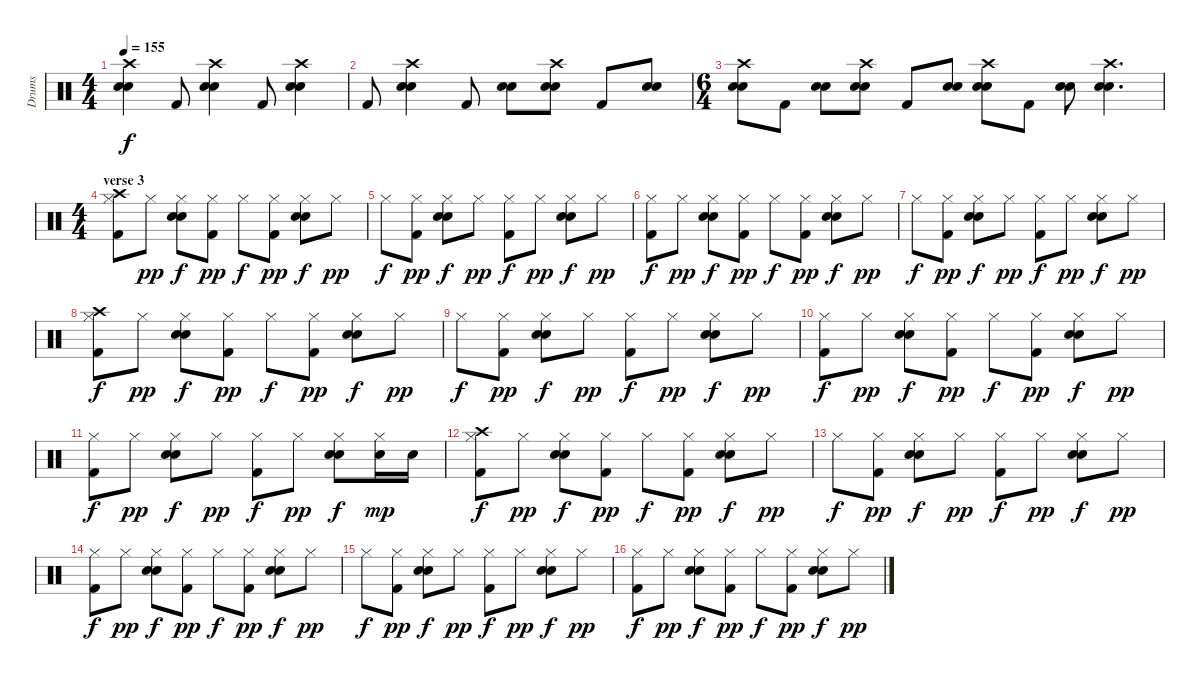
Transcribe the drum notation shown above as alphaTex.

\track ("Drums" "Drums") {instrument percussion}
\staff {score}
\articulation defaults
\ts (4 4)
\tempo 155
\clef neutral
\ks c
("Crash high (hit)" "Snare (hit) 2" "Electric Snare (hit)").4{dy f} "Kick (hit) 2".8 ("Crash high (hit)" "Snare (hit) 2" "Electric Snare (hit)").4 "Kick (hit) 2".8 ("Crash high (hit)" "Snare (hit) 2" "Electric Snare (hit)").4 |
"Kick (hit) 2".8 ("Crash high (hit)" "Snare (hit) 2" "Electric Snare (hit)").4 "Kick (hit) 2".8 ("Snare (hit) 2" "Electric Snare (hit)").8 ("Crash high (hit)" "Snare (hit) 2" "Electric Snare (hit)").8 "Kick (hit) 2".8 ("Snare (hit) 2" "Electric Snare (hit)").8 |
\ts (6 4)
("Crash high (hit)" "Snare (hit) 2" "Electric Snare (hit)").8 "Kick (hit) 2".8 ("Snare (hit) 2" "Electric Snare (hit)").8 ("Crash high (hit)" "Snare (hit) 2" "Electric Snare (hit)").8 "Kick (hit) 2".8 ("Snare (hit) 2" "Electric Snare (hit)").8 ("Crash high (hit)" "Snare (hit) 2" "Electric Snare (hit)").8 "Kick (hit) 2".8 ("Snare (hit) 2" "Electric Snare (hit)").8 ("Crash high (hit)" "Snare (hit) 2" "Electric Snare (hit)").4{d} |
\ts (4 4)
\section ("" "verse 3")
("Hi-Hat (closed)" "Crash high (hit)" "Kick (hit) 2").8 "Hi-Hat (closed)".8{dy pp} ("Hi-Hat (closed)" "Snare (hit) 2" "Electric Snare (hit)").8{dy f} ("Hi-Hat (closed)" "Kick (hit) 2").8{dy pp} "Hi-Hat (closed)".8{dy f} ("Hi-Hat (closed)" "Kick (hit) 2").8{dy pp} ("Hi-Hat (closed)" "Snare (hit) 2" "Electric Snare (hit)").8{dy f} "Hi-Hat (closed)".8{dy pp} |
"Hi-Hat (closed)".8{dy f} ("Hi-Hat (closed)" "Kick (hit) 2").8{dy pp} ("Hi-Hat (closed)" "Snare (hit) 2" "Electric Snare (hit)").8{dy f} "Hi-Hat (closed)".8{dy pp} ("Hi-Hat (closed)" "Kick (hit) 2").8{dy f} "Hi-Hat (closed)".8{dy pp} ("Hi-Hat (closed)" "Snare (hit) 2" "Electric Snare (hit)").8{dy f} "Hi-Hat (closed)".8{dy pp} |
("Hi-Hat (closed)" "Kick (hit) 2").8{dy f} "Hi-Hat (closed)".8{dy pp} ("Hi-Hat (closed)" "Snare (hit) 2" "Electric Snare (hit)").8{dy f} ("Hi-Hat (closed)" "Kick (hit) 2").8{dy pp} "Hi-Hat (closed)".8{dy f} ("Hi-Hat (closed)" "Kick (hit) 2").8{dy pp} ("Hi-Hat (closed)" "Snare (hit) 2" "Electric Snare (hit)").8{dy f} "Hi-Hat (closed)".8{dy pp} |
"Hi-Hat (closed)".8{dy f} ("Hi-Hat (closed)" "Kick (hit) 2").8{dy pp} ("Hi-Hat (closed)" "Snare (hit) 2" "Electric Snare (hit)").8{dy f} "Hi-Hat (closed)".8{dy pp} ("Hi-Hat (closed)" "Kick (hit) 2").8{dy f} "Hi-Hat (closed)".8{dy pp} ("Hi-Hat (closed)" "Snare (hit) 2" "Electric Snare (hit)").8{dy f} "Hi-Hat (closed)".8{dy pp} |
("Hi-Hat (closed)" "Crash high (hit)" "Kick (hit) 2").8{dy f} "Hi-Hat (closed)".8{dy pp} ("Hi-Hat (closed)" "Snare (hit) 2" "Electric Snare (hit)").8{dy f} ("Hi-Hat (closed)" "Kick (hit) 2").8{dy pp} "Hi-Hat (closed)".8{dy f} ("Hi-Hat (closed)" "Kick (hit) 2").8{dy pp} ("Hi-Hat (closed)" "Snare (hit) 2" "Electric Snare (hit)").8{dy f} "Hi-Hat (closed)".8{dy pp} |
"Hi-Hat (closed)".8{dy f} ("Hi-Hat (closed)" "Kick (hit) 2").8{dy pp} ("Hi-Hat (closed)" "Snare (hit) 2" "Electric Snare (hit)").8{dy f} "Hi-Hat (closed)".8{dy pp} ("Hi-Hat (closed)" "Kick (hit) 2").8{dy f} "Hi-Hat (closed)".8{dy pp} ("Hi-Hat (closed)" "Snare (hit) 2" "Electric Snare (hit)").8{dy f} "Hi-Hat (closed)".8{dy pp} |
("Hi-Hat (closed)" "Kick (hit) 2").8{dy f} "Hi-Hat (closed)".8{dy pp} ("Hi-Hat (closed)" "Snare (hit) 2" "Electric Snare (hit)").8{dy f} ("Hi-Hat (closed)" "Kick (hit) 2").8{dy pp} "Hi-Hat (closed)".8{dy f} ("Hi-Hat (closed)" "Kick (hit) 2").8{dy pp} ("Hi-Hat (closed)" "Snare (hit) 2" "Electric Snare (hit)").8{dy f} "Hi-Hat (closed)".8{dy pp} |
("Hi-Hat (closed)" "Kick (hit) 2").8{dy f} "Hi-Hat (closed)".8{dy pp} ("Hi-Hat (closed)" "Snare (hit) 2" "Electric Snare (hit)").8{dy f} "Hi-Hat (closed)".8{dy pp} ("Hi-Hat (closed)" "Kick (hit) 2").8{dy f} "Hi-Hat (closed)".8{dy pp} ("Hi-Hat (closed)" "Snare (hit) 2" "Electric Snare (hit)").8{dy f} ("Hi-Hat (closed)" "Snare (hit) 2").16{dy mp} "Snare (hit) 2".16 |
\section ("" "")
("Hi-Hat (closed)" "Crash high (hit)" "Kick (hit) 2").8{dy f} "Hi-Hat (closed)".8{dy pp} ("Hi-Hat (closed)" "Snare (hit) 2" "Electric Snare (hit)").8{dy f} ("Hi-Hat (closed)" "Kick (hit) 2").8{dy pp} "Hi-Hat (closed)".8{dy f} ("Hi-Hat (closed)" "Kick (hit) 2").8{dy pp} ("Hi-Hat (closed)" "Snare (hit) 2" "Electric Snare (hit)").8{dy f} "Hi-Hat (closed)".8{dy pp} |
"Hi-Hat (closed)".8{dy f} ("Hi-Hat (closed)" "Kick (hit) 2").8{dy pp} ("Hi-Hat (closed)" "Snare (hit) 2" "Electric Snare (hit)").8{dy f} "Hi-Hat (closed)".8{dy pp} ("Hi-Hat (closed)" "Kick (hit) 2").8{dy f} "Hi-Hat (closed)".8{dy pp} ("Hi-Hat (closed)" "Snare (hit) 2" "Electric Snare (hit)").8{dy f} "Hi-Hat (closed)".8{dy pp} |
("Hi-Hat (closed)" "Kick (hit) 2").8{dy f} "Hi-Hat (closed)".8{dy pp} ("Hi-Hat (closed)" "Snare (hit) 2" "Electric Snare (hit)").8{dy f} ("Hi-Hat (closed)" "Kick (hit) 2").8{dy pp} "Hi-Hat (closed)".8{dy f} ("Hi-Hat (closed)" "Kick (hit) 2").8{dy pp} ("Hi-Hat (closed)" "Snare (hit) 2" "Electric Snare (hit)").8{dy f} "Hi-Hat (closed)".8{dy pp} |
"Hi-Hat (closed)".8{dy f} ("Hi-Hat (closed)" "Kick (hit) 2").8{dy pp} ("Hi-Hat (closed)" "Snare (hit) 2" "Electric Snare (hit)").8{dy f} "Hi-Hat (closed)".8{dy pp} ("Hi-Hat (closed)" "Kick (hit) 2").8{dy f} "Hi-Hat (closed)".8{dy pp} ("Hi-Hat (closed)" "Snare (hit) 2" "Electric Snare (hit)").8{dy f} "Hi-Hat (closed)".8{dy pp} |
("Hi-Hat (closed)" "Kick (hit) 2").8{dy f} "Hi-Hat (closed)".8{dy pp} ("Hi-Hat (closed)" "Snare (hit) 2" "Electric Snare (hit)").8{dy f} ("Hi-Hat (closed)" "Kick (hit) 2").8{dy pp} "Hi-Hat (closed)".8{dy f} ("Hi-Hat (closed)" "Kick (hit) 2").8{dy pp} ("Hi-Hat (closed)" "Snare (hit) 2" "Electric Snare (hit)").8{dy f} "Hi-Hat (closed)".8{dy pp}
